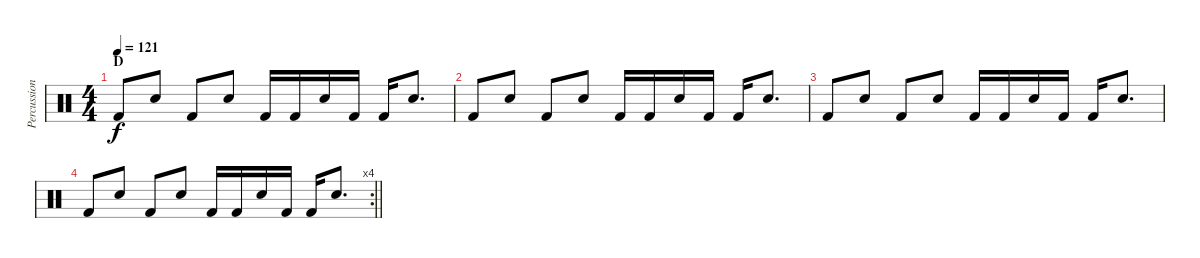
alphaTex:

\track ("Percussion" "Percussion") {instrument percussion}
\staff {score}
\articulation defaults
\ts (4 4)
\section ("" "D")
\tempo 121
\clef neutral
\ks c "Kick (hit) 2".8{dy f} "Snare (hit) 2".8 "Kick (hit) 2".8 "Snare (hit) 2".8 "Kick (hit) 2".16 "Kick (hit) 2".16 "Snare (hit) 2".16 "Kick (hit) 2".16 "Kick (hit) 2".16 "Snare (hit) 2".8{d}
|
"Kick (hit) 2".8 "Snare (hit) 2".8 "Kick (hit) 2".8 "Snare (hit) 2".8 "Kick (hit) 2".16 "Kick (hit) 2".16 "Snare (hit) 2".16 "Kick (hit) 2".16 "Kick (hit) 2".16 "Snare (hit) 2".8{d} |
"Kick (hit) 2".8 "Snare (hit) 2".8 "Kick (hit) 2".8 "Snare (hit) 2".8 "Kick (hit) 2".16 "Kick (hit) 2".16 "Snare (hit) 2".16 "Kick (hit) 2".16 "Kick (hit) 2".16 "Snare (hit) 2".8{d} |
\rc 4
\barLineRight lightlight "Kick (hit) 2".8 "Snare (hit) 2".8 "Kick (hit) 2".8 "Snare (hit) 2".8 "Kick (hit) 2".16 "Kick (hit) 2".16 "Snare (hit) 2".16 "Kick (hit) 2".16 "Kick (hit) 2".16 "Snare (hit) 2".8{d}
